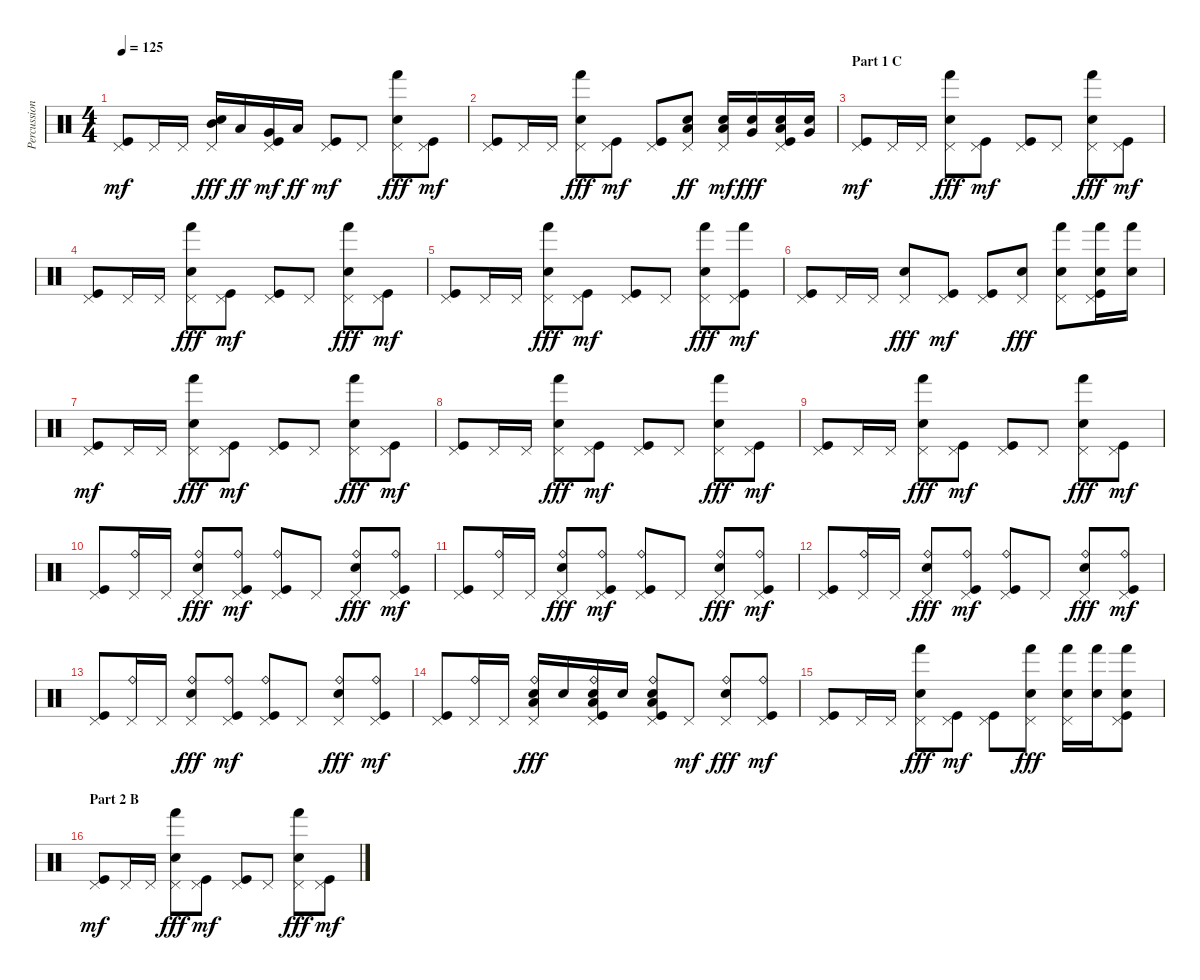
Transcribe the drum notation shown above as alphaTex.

\track ("Percussion" "Percussion") {instrument percussion}
\staff {score}
\articulation defaults
\ts (4 4)
\tempo 125
\clef neutral
\ks c
("Pedal Hi-Hat (hit)" "Kick (hit)").8{dy mf} "Pedal Hi-Hat (hit)".16 "Pedal Hi-Hat (hit)".16 ("Pedal Hi-Hat (hit)" "Mid Tom (hit)" "Electric Snare (hit)").16{dy fff} "Low Tom (hit)".16{dy ff} ("Pedal Hi-Hat (hit)" "Very Low Tom (hit)" "Kick (hit)").16{dy mf} "Low Floor Tom (hit)".16{dy ff} ("Pedal Hi-Hat (hit)" "Kick (hit)").8{dy mf} "Pedal Hi-Hat (hit)".8 ("Pedal Hi-Hat (hit)" "Hand (hit)" "Electric Snare (hit)").8{dy fff} ("Pedal Hi-Hat (hit)" "Kick (hit)").8{dy mf} |
("Pedal Hi-Hat (hit)" "Kick (hit)").8 "Pedal Hi-Hat (hit)".16 "Pedal Hi-Hat (hit)".16 ("Pedal Hi-Hat (hit)" "Hand (hit)" "Electric Snare (hit)").8{dy fff} ("Pedal Hi-Hat (hit)" "Kick (hit)").8{dy mf} ("Pedal Hi-Hat (hit)" "Kick (hit)").8 ("Pedal Hi-Hat (hit)" "Low Floor Tom (hit)" "Electric Snare (hit)").8{dy ff} ("Pedal Hi-Hat (hit)" "Low Floor Tom (hit)" "Electric Snare (hit)").16{dy mf} ("Very Low Tom (hit)" "Electric Snare (hit)").16{dy fff} ("Pedal Hi-Hat (hit)" "Low Floor Tom (hit)" "Electric Snare (hit)" "Kick (hit)").16 ("Very Low Tom (hit)" "Electric Snare (hit)").16 |
\section ("" "Part 1 C")
("Pedal Hi-Hat (hit)" "Kick (hit)").8{dy mf} "Pedal Hi-Hat (hit)".16 "Pedal Hi-Hat (hit)".16 ("Pedal Hi-Hat (hit)" "Hand (hit)" "Electric Snare (hit)").8{dy fff} ("Pedal Hi-Hat (hit)" "Kick (hit)").8{dy mf} ("Pedal Hi-Hat (hit)" "Kick (hit)").8 "Pedal Hi-Hat (hit)".8 ("Pedal Hi-Hat (hit)" "Hand (hit)" "Electric Snare (hit)").8{dy fff} ("Pedal Hi-Hat (hit)" "Kick (hit)").8{dy mf} |
("Pedal Hi-Hat (hit)" "Kick (hit)").8 "Pedal Hi-Hat (hit)".16 "Pedal Hi-Hat (hit)".16 ("Pedal Hi-Hat (hit)" "Hand (hit)" "Electric Snare (hit)").8{dy fff} ("Pedal Hi-Hat (hit)" "Kick (hit)").8{dy mf} ("Pedal Hi-Hat (hit)" "Kick (hit)").8 "Pedal Hi-Hat (hit)".8 ("Pedal Hi-Hat (hit)" "Hand (hit)" "Electric Snare (hit)").8{dy fff} ("Pedal Hi-Hat (hit)" "Kick (hit)").8{dy mf} |
("Pedal Hi-Hat (hit)" "Kick (hit)").8 "Pedal Hi-Hat (hit)".16 "Pedal Hi-Hat (hit)".16 ("Pedal Hi-Hat (hit)" "Hand (hit)" "Electric Snare (hit)").8{dy fff} ("Pedal Hi-Hat (hit)" "Kick (hit)").8{dy mf} ("Pedal Hi-Hat (hit)" "Kick (hit)").8 "Pedal Hi-Hat (hit)".8 ("Pedal Hi-Hat (hit)" "Hand (hit)" "Electric Snare (hit)").8{dy fff} ("Pedal Hi-Hat (hit)" "Hand (hit)" "Kick (hit)").8{dy mf} |
("Pedal Hi-Hat (hit)" "Kick (hit)").8 "Pedal Hi-Hat (hit)".16 "Pedal Hi-Hat (hit)".16 ("Pedal Hi-Hat (hit)" "Electric Snare (hit)").8{dy fff} ("Pedal Hi-Hat (hit)" "Kick (hit)").8{dy mf} ("Pedal Hi-Hat (hit)" "Kick (hit)").8 ("Pedal Hi-Hat (hit)" "Electric Snare (hit)").8{dy fff} ("Pedal Hi-Hat (hit)" "Hand (hit)" "Electric Snare (hit)").8 ("Pedal Hi-Hat (hit)" "Hand (hit)" "Electric Snare (hit)" "Kick (hit)").16 ("Hand (hit)" "Electric Snare (hit)").16 |
("Pedal Hi-Hat (hit)" "Kick (hit)").8{dy mf} "Pedal Hi-Hat (hit)".16 "Pedal Hi-Hat (hit)".16 ("Pedal Hi-Hat (hit)" "Hand (hit)" "Electric Snare (hit)").8{dy fff} ("Pedal Hi-Hat (hit)" "Kick (hit)").8{dy mf} ("Pedal Hi-Hat (hit)" "Kick (hit)").8 "Pedal Hi-Hat (hit)".8 ("Pedal Hi-Hat (hit)" "Hand (hit)" "Electric Snare (hit)").8{dy fff} ("Pedal Hi-Hat (hit)" "Kick (hit)").8{dy mf} |
("Pedal Hi-Hat (hit)" "Kick (hit)").8 "Pedal Hi-Hat (hit)".16 "Pedal Hi-Hat (hit)".16 ("Pedal Hi-Hat (hit)" "Hand (hit)" "Electric Snare (hit)").8{dy fff} ("Pedal Hi-Hat (hit)" "Kick (hit)").8{dy mf} ("Pedal Hi-Hat (hit)" "Kick (hit)").8 "Pedal Hi-Hat (hit)".8 ("Pedal Hi-Hat (hit)" "Hand (hit)" "Electric Snare (hit)").8{dy fff} ("Pedal Hi-Hat (hit)" "Kick (hit)").8{dy mf} |
("Pedal Hi-Hat (hit)" "Kick (hit)").8 "Pedal Hi-Hat (hit)".16 "Pedal Hi-Hat (hit)".16 ("Pedal Hi-Hat (hit)" "Hand (hit)" "Electric Snare (hit)").8{dy fff} ("Pedal Hi-Hat (hit)" "Kick (hit)").8{dy mf} ("Pedal Hi-Hat (hit)" "Kick (hit)").8 "Pedal Hi-Hat (hit)".8 ("Pedal Hi-Hat (hit)" "Hand (hit)" "Electric Snare (hit)").8{dy fff} ("Pedal Hi-Hat (hit)" "Kick (hit)").8{dy mf} |
("Pedal Hi-Hat (hit)" "Kick (hit)").8 ("Ride (bell)" "Pedal Hi-Hat (hit)").16 "Pedal Hi-Hat (hit)".16 ("Ride (bell)" "Pedal Hi-Hat (hit)" "Electric Snare (hit)").8{dy fff} ("Ride (bell)" "Pedal Hi-Hat (hit)" "Kick (hit)").8{dy mf} ("Ride (bell)" "Pedal Hi-Hat (hit)" "Kick (hit)").8 "Pedal Hi-Hat (hit)".8 ("Ride (bell)" "Pedal Hi-Hat (hit)" "Electric Snare (hit)").8{dy fff} ("Ride (bell)" "Pedal Hi-Hat (hit)" "Kick (hit)").8{dy mf} |
("Pedal Hi-Hat (hit)" "Kick (hit)").8 ("Ride (bell)" "Pedal Hi-Hat (hit)").16 "Pedal Hi-Hat (hit)".16 ("Ride (bell)" "Pedal Hi-Hat (hit)" "Electric Snare (hit)").8{dy fff} ("Ride (bell)" "Pedal Hi-Hat (hit)" "Kick (hit)").8{dy mf} ("Ride (bell)" "Pedal Hi-Hat (hit)" "Kick (hit)").8 "Pedal Hi-Hat (hit)".8 ("Ride (bell)" "Pedal Hi-Hat (hit)" "Electric Snare (hit)").8{dy fff} ("Ride (bell)" "Pedal Hi-Hat (hit)" "Kick (hit)").8{dy mf} |
("Pedal Hi-Hat (hit)" "Kick (hit)").8 ("Ride (bell)" "Pedal Hi-Hat (hit)").16 "Pedal Hi-Hat (hit)".16 ("Ride (bell)" "Pedal Hi-Hat (hit)" "Electric Snare (hit)").8{dy fff} ("Ride (bell)" "Pedal Hi-Hat (hit)" "Kick (hit)").8{dy mf} ("Ride (bell)" "Pedal Hi-Hat (hit)" "Kick (hit)").8 "Pedal Hi-Hat (hit)".8 ("Ride (bell)" "Pedal Hi-Hat (hit)" "Electric Snare (hit)").8{dy fff} ("Ride (bell)" "Pedal Hi-Hat (hit)" "Kick (hit)").8{dy mf} |
("Pedal Hi-Hat (hit)" "Kick (hit)").8 ("Ride (bell)" "Pedal Hi-Hat (hit)").16 "Pedal Hi-Hat (hit)".16 ("Ride (bell)" "Pedal Hi-Hat (hit)" "Electric Snare (hit)").8{dy fff} ("Ride (bell)" "Pedal Hi-Hat (hit)" "Kick (hit)").8{dy mf} ("Ride (bell)" "Pedal Hi-Hat (hit)" "Kick (hit)").8 "Pedal Hi-Hat (hit)".8 ("Ride (bell)" "Pedal Hi-Hat (hit)" "Electric Snare (hit)").8{dy fff} ("Ride (bell)" "Pedal Hi-Hat (hit)" "Kick (hit)").8{dy mf} |
("Pedal Hi-Hat (hit)" "Kick (hit)").8 ("Ride (bell)" "Pedal Hi-Hat (hit)").16 "Pedal Hi-Hat (hit)".16 ("Ride (bell)" "Pedal Hi-Hat (hit)" "Low Floor Tom (hit)" "Electric Snare (hit)").16{dy fff} "Electric Snare (hit)".16 ("Ride (bell)" "Pedal Hi-Hat (hit)" "Low Floor Tom (hit)" "Electric Snare (hit)" "Kick (hit)").16 "Electric Snare (hit)".16 ("Ride (bell)" "Pedal Hi-Hat (hit)" "Low Floor Tom (hit)" "Electric Snare (hit)" "Kick (hit)").8 "Pedal Hi-Hat (hit)".8{dy mf} ("Ride (bell)" "Pedal Hi-Hat (hit)" "Electric Snare (hit)").8{dy fff} ("Ride (bell)" "Pedal Hi-Hat (hit)" "Kick (hit)").8{dy mf} |
("Pedal Hi-Hat (hit)" "Kick (hit)").8 "Pedal Hi-Hat (hit)".16 "Pedal Hi-Hat (hit)".16 ("Pedal Hi-Hat (hit)" "Hand (hit)" "Electric Snare (hit)").8{dy fff} ("Pedal Hi-Hat (hit)" "Kick (hit)").8{dy mf} ("Pedal Hi-Hat (hit)" "Kick (hit)").8 ("Pedal Hi-Hat (hit)" "Hand (hit)" "Electric Snare (hit)").8{dy fff} ("Pedal Hi-Hat (hit)" "Hand (hit)" "Electric Snare (hit)").16 ("Hand (hit)" "Electric Snare (hit)").16 ("Pedal Hi-Hat (hit)" "Hand (hit)" "Electric Snare (hit)" "Kick (hit)").8 |
\section ("" "Part 2 B")
("Pedal Hi-Hat (hit)" "Kick (hit)").8{dy mf} "Pedal Hi-Hat (hit)".16 "Pedal Hi-Hat (hit)".16 ("Pedal Hi-Hat (hit)" "Hand (hit)" "Electric Snare (hit)").8{dy fff} ("Pedal Hi-Hat (hit)" "Kick (hit)").8{dy mf} ("Pedal Hi-Hat (hit)" "Kick (hit)").8 "Pedal Hi-Hat (hit)".8 ("Pedal Hi-Hat (hit)" "Hand (hit)" "Electric Snare (hit)").8{dy fff} ("Pedal Hi-Hat (hit)" "Kick (hit)").8{dy mf}
